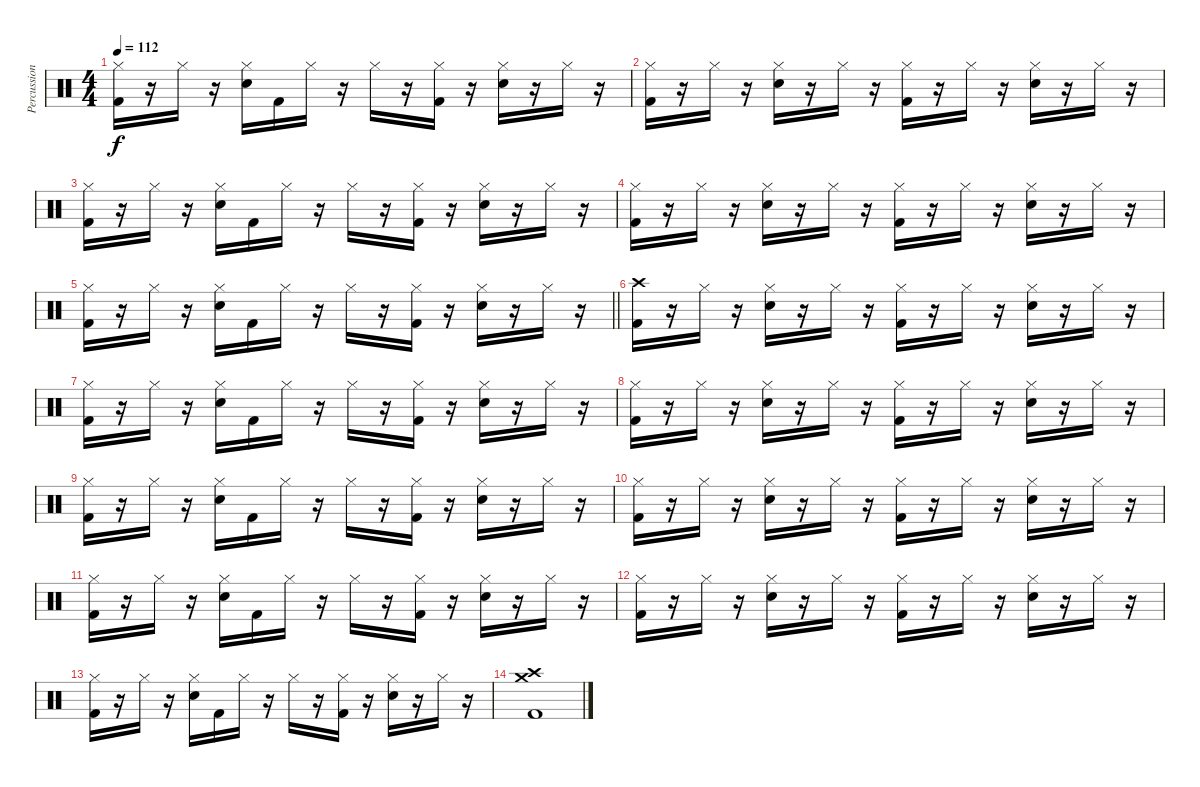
\track ("Percussion" "Percussion") {instrument percussion}
\staff {score}
\articulation defaults
\ts (4 4)
\tempo 112
\clef neutral
\ks c
("Hi-Hat (closed)" "Kick (hit) 2").16{dy f} r.16 "Hi-Hat (closed)".16 r.16 ("Hi-Hat (closed)" "Snare (hit) 2").16 "Kick (hit) 2".16 "Hi-Hat (closed)".16 r.16 "Hi-Hat (closed)".16 r.16 ("Hi-Hat (closed)" "Kick (hit) 2").16 r.16 ("Hi-Hat (closed)" "Snare (hit) 2").16 r.16 "Hi-Hat (closed)".16 r.16 |
("Hi-Hat (closed)" "Kick (hit) 2").16 r.16 "Hi-Hat (closed)".16 r.16 ("Hi-Hat (closed)" "Snare (hit) 2").16 r.16 "Hi-Hat (closed)".16 r.16 ("Hi-Hat (closed)" "Kick (hit) 2").16 r.16 "Hi-Hat (closed)".16 r.16 ("Hi-Hat (closed)" "Snare (hit) 2").16 r.16 "Hi-Hat (closed)".16 r.16 |
("Hi-Hat (closed)" "Kick (hit) 2").16 r.16 "Hi-Hat (closed)".16 r.16 ("Hi-Hat (closed)" "Snare (hit) 2").16 "Kick (hit) 2".16 "Hi-Hat (closed)".16 r.16 "Hi-Hat (closed)".16 r.16 ("Hi-Hat (closed)" "Kick (hit) 2").16 r.16 ("Hi-Hat (closed)" "Snare (hit) 2").16 r.16 "Hi-Hat (closed)".16 r.16 |
("Hi-Hat (closed)" "Kick (hit) 2").16 r.16 "Hi-Hat (closed)".16 r.16 ("Hi-Hat (closed)" "Snare (hit) 2").16 r.16 "Hi-Hat (closed)".16 r.16 ("Hi-Hat (closed)" "Kick (hit) 2").16 r.16 "Hi-Hat (closed)".16 r.16 ("Hi-Hat (closed)" "Snare (hit) 2").16 r.16 "Hi-Hat (closed)".16 r.16 |
\barLineRight lightlight
("Hi-Hat (closed)" "Kick (hit) 2").16 r.16 "Hi-Hat (closed)".16 r.16 ("Hi-Hat (closed)" "Snare (hit) 2").16 "Kick (hit) 2".16 "Hi-Hat (closed)".16 r.16 "Hi-Hat (closed)".16 r.16 ("Hi-Hat (closed)" "Kick (hit) 2").16 r.16 ("Hi-Hat (closed)" "Snare (hit) 2").16 r.16 "Hi-Hat (closed)".16 r.16 |
\section ("" "")
("Crash high (hit)" "Kick (hit) 2").16 r.16 "Hi-Hat (closed)".16 r.16 ("Hi-Hat (closed)" "Snare (hit) 2").16 r.16 "Hi-Hat (closed)".16 r.16 ("Hi-Hat (closed)" "Kick (hit) 2").16 r.16 "Hi-Hat (closed)".16 r.16 ("Hi-Hat (closed)" "Snare (hit) 2").16 r.16 "Hi-Hat (closed)".16 r.16 |
("Hi-Hat (closed)" "Kick (hit) 2").16 r.16 "Hi-Hat (closed)".16 r.16 ("Hi-Hat (closed)" "Snare (hit) 2").16 "Kick (hit) 2".16 "Hi-Hat (closed)".16 r.16 "Hi-Hat (closed)".16 r.16 ("Hi-Hat (closed)" "Kick (hit) 2").16 r.16 ("Hi-Hat (closed)" "Snare (hit) 2").16 r.16 "Hi-Hat (closed)".16 r.16 |
("Hi-Hat (closed)" "Kick (hit) 2").16 r.16 "Hi-Hat (closed)".16 r.16 ("Hi-Hat (closed)" "Snare (hit) 2").16 r.16 "Hi-Hat (closed)".16 r.16 ("Hi-Hat (closed)" "Kick (hit) 2").16 r.16 "Hi-Hat (closed)".16 r.16 ("Hi-Hat (closed)" "Snare (hit) 2").16 r.16 "Hi-Hat (closed)".16 r.16 |
("Hi-Hat (closed)" "Kick (hit) 2").16 r.16 "Hi-Hat (closed)".16 r.16 ("Hi-Hat (closed)" "Snare (hit) 2").16 "Kick (hit) 2".16 "Hi-Hat (closed)".16 r.16 "Hi-Hat (closed)".16 r.16 ("Hi-Hat (closed)" "Kick (hit) 2").16 r.16 ("Hi-Hat (closed)" "Snare (hit) 2").16 r.16 "Hi-Hat (closed)".16 r.16 |
("Hi-Hat (closed)" "Kick (hit) 2").16 r.16 "Hi-Hat (closed)".16 r.16 ("Hi-Hat (closed)" "Snare (hit) 2").16 r.16 "Hi-Hat (closed)".16 r.16 ("Hi-Hat (closed)" "Kick (hit) 2").16 r.16 "Hi-Hat (closed)".16 r.16 ("Hi-Hat (closed)" "Snare (hit) 2").16 r.16 "Hi-Hat (closed)".16 r.16 |
("Hi-Hat (closed)" "Kick (hit) 2").16 r.16 "Hi-Hat (closed)".16 r.16 ("Hi-Hat (closed)" "Snare (hit) 2").16 "Kick (hit) 2".16 "Hi-Hat (closed)".16 r.16 "Hi-Hat (closed)".16 r.16 ("Hi-Hat (closed)" "Kick (hit) 2").16 r.16 ("Hi-Hat (closed)" "Snare (hit) 2").16 r.16 "Hi-Hat (closed)".16 r.16 |
("Hi-Hat (closed)" "Kick (hit) 2").16 r.16 "Hi-Hat (closed)".16 r.16 ("Hi-Hat (closed)" "Snare (hit) 2").16 r.16 "Hi-Hat (closed)".16 r.16 ("Hi-Hat (closed)" "Kick (hit) 2").16 r.16 "Hi-Hat (closed)".16 r.16 ("Hi-Hat (closed)" "Snare (hit) 2").16 r.16 "Hi-Hat (closed)".16 r.16 |
("Hi-Hat (closed)" "Kick (hit) 2").16 r.16 "Hi-Hat (closed)".16 r.16 ("Hi-Hat (closed)" "Snare (hit) 2").16 "Kick (hit) 2".16 "Hi-Hat (closed)".16 r.16 "Hi-Hat (closed)".16 r.16 ("Hi-Hat (closed)" "Kick (hit) 2").16 r.16 ("Hi-Hat (closed)" "Snare (hit) 2").16 r.16 "Hi-Hat (closed)".16 r.16 |
("Crash high (hit)" "Crash medium (hit)" "Kick (hit) 2").1
